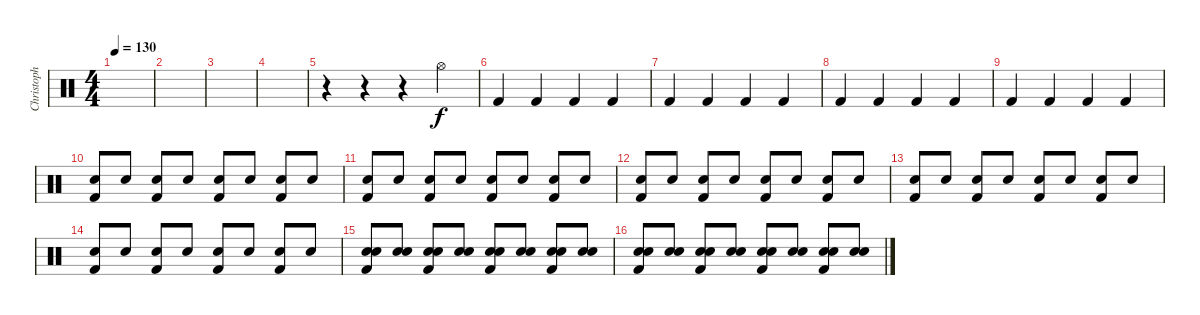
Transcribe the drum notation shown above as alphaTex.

\track ("Christoph Schneider" "Christoph ") {instrument percussion}
\staff {score}
\articulation defaults
\ts (4 4)
\tempo 130
\clef neutral
\ks c
|
|
|
|
r.4 r.4 r.4 "Hi-Hat (open)".4 |
"Kick (hit) 2".4 "Kick (hit) 2".4 "Kick (hit) 2".4 "Kick (hit) 2".4 |
"Kick (hit) 2".4 "Kick (hit) 2".4 "Kick (hit) 2".4 "Kick (hit) 2".4 |
"Kick (hit) 2".4 "Kick (hit) 2".4 "Kick (hit) 2".4 "Kick (hit) 2".4 |
"Kick (hit) 2".4 "Kick (hit) 2".4 "Kick (hit) 2".4 "Kick (hit) 2".4 |
("Electric Snare (hit)" "Kick (hit) 2").8 "Electric Snare (hit)".8 ("Electric Snare (hit)" "Kick (hit) 2").8 "Electric Snare (hit)".8 ("Electric Snare (hit)" "Kick (hit) 2").8 "Electric Snare (hit)".8 ("Electric Snare (hit)" "Kick (hit) 2").8 "Electric Snare (hit)".8 |
("Electric Snare (hit)" "Kick (hit) 2").8 "Electric Snare (hit)".8 ("Electric Snare (hit)" "Kick (hit) 2").8 "Electric Snare (hit)".8 ("Electric Snare (hit)" "Kick (hit) 2").8 "Electric Snare (hit)".8 ("Electric Snare (hit)" "Kick (hit) 2").8 "Electric Snare (hit)".8 |
("Electric Snare (hit)" "Kick (hit) 2").8 "Electric Snare (hit)".8 ("Electric Snare (hit)" "Kick (hit) 2").8 "Electric Snare (hit)".8 ("Electric Snare (hit)" "Kick (hit) 2").8 "Electric Snare (hit)".8 ("Electric Snare (hit)" "Kick (hit) 2").8 "Electric Snare (hit)".8 |
("Electric Snare (hit)" "Kick (hit) 2").8 "Electric Snare (hit)".8 ("Electric Snare (hit)" "Kick (hit) 2").8 "Electric Snare (hit)".8 ("Electric Snare (hit)" "Kick (hit) 2").8 "Electric Snare (hit)".8 ("Electric Snare (hit)" "Kick (hit) 2").8 "Electric Snare (hit)".8 |
("Electric Snare (hit)" "Kick (hit) 2").8 "Electric Snare (hit)".8 ("Electric Snare (hit)" "Kick (hit) 2").8 "Electric Snare (hit)".8 ("Electric Snare (hit)" "Kick (hit) 2").8 "Electric Snare (hit)".8 ("Electric Snare (hit)" "Kick (hit) 2").8 "Electric Snare (hit)".8 |
("Electric Snare (hit)" "Electric Snare (hit)" "Kick (hit) 2").8 ("Electric Snare (hit)" "Electric Snare (hit)").8 ("Electric Snare (hit)" "Electric Snare (hit)" "Kick (hit) 2").8 ("Electric Snare (hit)" "Electric Snare (hit)").8 ("Electric Snare (hit)" "Electric Snare (hit)" "Kick (hit) 2").8 ("Electric Snare (hit)" "Electric Snare (hit)").8 ("Electric Snare (hit)" "Electric Snare (hit)" "Kick (hit) 2").8 ("Electric Snare (hit)" "Electric Snare (hit)").8 |
("Electric Snare (hit)" "Electric Snare (hit)" "Kick (hit) 2").8 ("Electric Snare (hit)" "Electric Snare (hit)").8 ("Electric Snare (hit)" "Electric Snare (hit)" "Kick (hit) 2").8 ("Electric Snare (hit)" "Electric Snare (hit)").8 ("Electric Snare (hit)" "Electric Snare (hit)" "Kick (hit) 2").8 ("Electric Snare (hit)" "Electric Snare (hit)").8 ("Electric Snare (hit)" "Electric Snare (hit)" "Kick (hit) 2").8 ("Electric Snare (hit)" "Electric Snare (hit)").8
